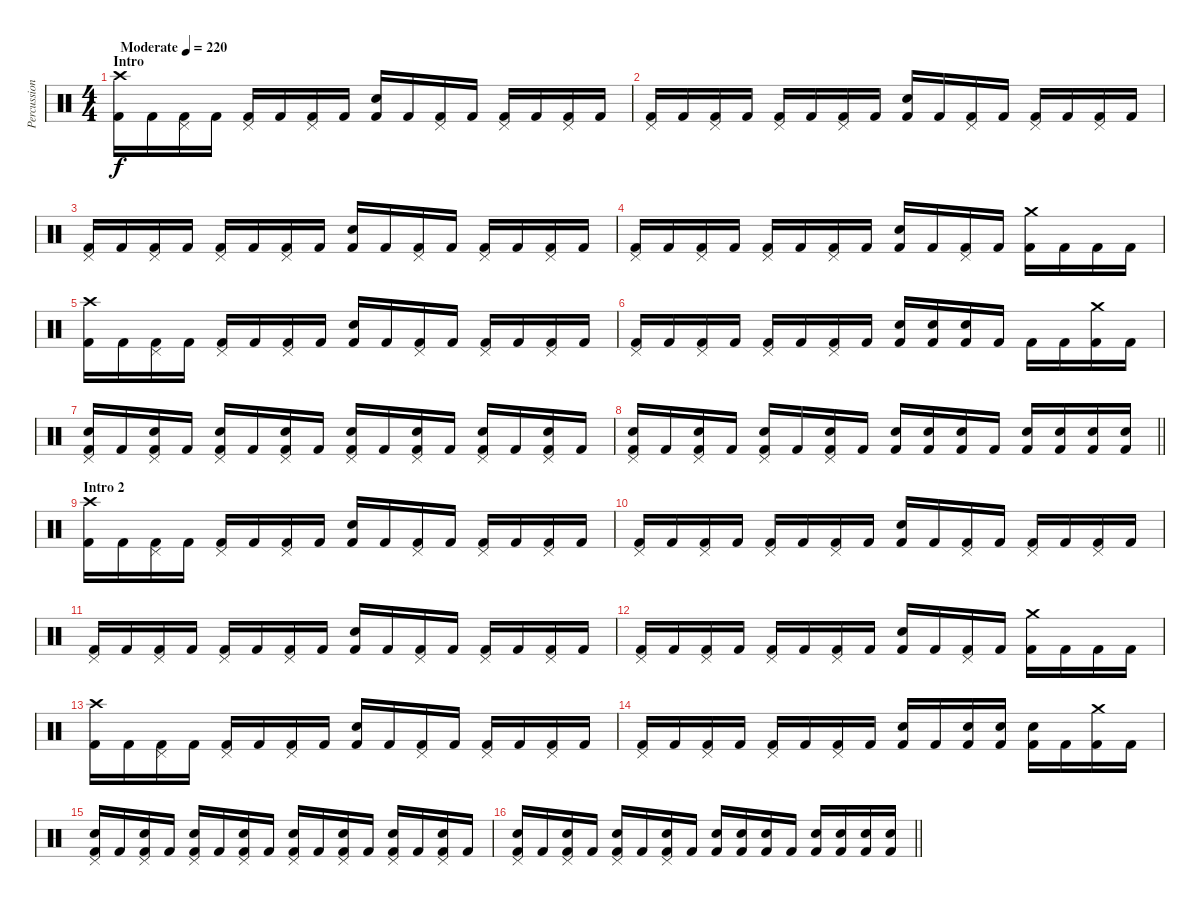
\track ("Percussion" "Percussion") {instrument percussion}
\staff {score}
\articulation defaults
\ts (4 4)
\section ("" "Intro")
\tempo (220 "Moderate")
\clef neutral
\ks c
("Crash high (hit)" "Kick (hit) 2").16{dy f} "Kick (hit) 2".16 ("Pedal Hi-Hat (hit)" "Kick (hit) 2").16 "Kick (hit) 2".16 ("Pedal Hi-Hat (hit)" "Kick (hit) 2").16 "Kick (hit) 2".16 ("Pedal Hi-Hat (hit)" "Kick (hit) 2").16 "Kick (hit) 2".16 ("Snare (hit) 2" "Kick (hit) 2").16 "Kick (hit) 2".16 ("Pedal Hi-Hat (hit)" "Kick (hit) 2").16 "Kick (hit) 2".16 ("Pedal Hi-Hat (hit)" "Kick (hit) 2").16 "Kick (hit) 2".16 ("Pedal Hi-Hat (hit)" "Kick (hit) 2").16 "Kick (hit) 2".16 |
("Pedal Hi-Hat (hit)" "Kick (hit) 2").16 "Kick (hit) 2".16 ("Pedal Hi-Hat (hit)" "Kick (hit) 2").16 "Kick (hit) 2".16 ("Pedal Hi-Hat (hit)" "Kick (hit) 2").16 "Kick (hit) 2".16 ("Pedal Hi-Hat (hit)" "Kick (hit) 2").16 "Kick (hit) 2".16 ("Snare (hit) 2" "Kick (hit) 2").16 "Kick (hit) 2".16 ("Pedal Hi-Hat (hit)" "Kick (hit) 2").16 "Kick (hit) 2".16 ("Pedal Hi-Hat (hit)" "Kick (hit) 2").16 "Kick (hit) 2".16 ("Pedal Hi-Hat (hit)" "Kick (hit) 2").16 "Kick (hit) 2".16 |
("Pedal Hi-Hat (hit)" "Kick (hit) 2").16 "Kick (hit) 2".16 ("Pedal Hi-Hat (hit)" "Kick (hit) 2").16 "Kick (hit) 2".16 ("Pedal Hi-Hat (hit)" "Kick (hit) 2").16 "Kick (hit) 2".16 ("Pedal Hi-Hat (hit)" "Kick (hit) 2").16 "Kick (hit) 2".16 ("Snare (hit) 2" "Kick (hit) 2").16 "Kick (hit) 2".16 ("Pedal Hi-Hat (hit)" "Kick (hit) 2").16 "Kick (hit) 2".16 ("Pedal Hi-Hat (hit)" "Kick (hit) 2").16 "Kick (hit) 2".16 ("Pedal Hi-Hat (hit)" "Kick (hit) 2").16 "Kick (hit) 2".16 |
("Pedal Hi-Hat (hit)" "Kick (hit) 2").16 "Kick (hit) 2".16 ("Pedal Hi-Hat (hit)" "Kick (hit) 2").16 "Kick (hit) 2".16 ("Pedal Hi-Hat (hit)" "Kick (hit) 2").16 "Kick (hit) 2".16 ("Pedal Hi-Hat (hit)" "Kick (hit) 2").16 "Kick (hit) 2".16 ("Snare (hit) 2" "Kick (hit) 2").16 "Kick (hit) 2".16 ("Pedal Hi-Hat (hit)" "Kick (hit) 2").16 "Kick (hit) 2".16 ("Crash medium (hit)" "Kick (hit) 2").16 "Kick (hit) 2".16 "Kick (hit) 2".16 "Kick (hit) 2".16 |
("Crash high (hit)" "Kick (hit) 2").16 "Kick (hit) 2".16 ("Pedal Hi-Hat (hit)" "Kick (hit) 2").16 "Kick (hit) 2".16 ("Pedal Hi-Hat (hit)" "Kick (hit) 2").16 "Kick (hit) 2".16 ("Pedal Hi-Hat (hit)" "Kick (hit) 2").16 "Kick (hit) 2".16 ("Snare (hit) 2" "Kick (hit) 2").16 "Kick (hit) 2".16 ("Pedal Hi-Hat (hit)" "Kick (hit) 2").16 "Kick (hit) 2".16 ("Pedal Hi-Hat (hit)" "Kick (hit) 2").16 "Kick (hit) 2".16 ("Pedal Hi-Hat (hit)" "Kick (hit) 2").16 "Kick (hit) 2".16 |
("Pedal Hi-Hat (hit)" "Kick (hit) 2").16 "Kick (hit) 2".16 ("Pedal Hi-Hat (hit)" "Kick (hit) 2").16 "Kick (hit) 2".16 ("Pedal Hi-Hat (hit)" "Kick (hit) 2").16 "Kick (hit) 2".16 ("Pedal Hi-Hat (hit)" "Kick (hit) 2").16 "Kick (hit) 2".16 ("Snare (hit) 2" "Kick (hit) 2").16 ("Snare (hit) 2" "Kick (hit) 2").16 ("Snare (hit) 2" "Kick (hit) 2").16 "Kick (hit) 2".16 "Kick (hit) 2".16 "Kick (hit) 2".16 ("Crash medium (hit)" "Kick (hit) 2").16 "Kick (hit) 2".16 |
("Pedal Hi-Hat (hit)" "Snare (hit) 2" "Kick (hit) 2").16 "Kick (hit) 2".16 ("Pedal Hi-Hat (hit)" "Snare (hit) 2" "Kick (hit) 2").16 "Kick (hit) 2".16 ("Pedal Hi-Hat (hit)" "Snare (hit) 2" "Kick (hit) 2").16 "Kick (hit) 2".16 ("Pedal Hi-Hat (hit)" "Snare (hit) 2" "Kick (hit) 2").16 "Kick (hit) 2".16 ("Pedal Hi-Hat (hit)" "Snare (hit) 2" "Kick (hit) 2").16 "Kick (hit) 2".16 ("Pedal Hi-Hat (hit)" "Snare (hit) 2" "Kick (hit) 2").16 "Kick (hit) 2".16 ("Pedal Hi-Hat (hit)" "Snare (hit) 2" "Kick (hit) 2").16 "Kick (hit) 2".16 ("Pedal Hi-Hat (hit)" "Snare (hit) 2" "Kick (hit) 2").16 "Kick (hit) 2".16 |
\barLineRight lightlight
("Pedal Hi-Hat (hit)" "Snare (hit) 2" "Kick (hit) 2").16 "Kick (hit) 2".16 ("Pedal Hi-Hat (hit)" "Snare (hit) 2" "Kick (hit) 2").16 "Kick (hit) 2".16 ("Pedal Hi-Hat (hit)" "Snare (hit) 2" "Kick (hit) 2").16 "Kick (hit) 2".16 ("Pedal Hi-Hat (hit)" "Snare (hit) 2" "Kick (hit) 2").16 "Kick (hit) 2".16 ("Snare (hit) 2" "Kick (hit) 2").16 ("Snare (hit) 2" "Kick (hit) 2").16 ("Snare (hit) 2" "Kick (hit) 2").16 "Kick (hit) 2".16 ("Snare (hit) 2" "Kick (hit) 2").16 ("Snare (hit) 2" "Kick (hit) 2").16 ("Snare (hit) 2" "Kick (hit) 2").16 ("Snare (hit) 2" "Kick (hit) 2").16 |
\section ("" "Intro 2")
("Crash high (hit)" "Kick (hit) 2").16 "Kick (hit) 2".16 ("Pedal Hi-Hat (hit)" "Kick (hit) 2").16 "Kick (hit) 2".16 ("Pedal Hi-Hat (hit)" "Kick (hit) 2").16 "Kick (hit) 2".16 ("Pedal Hi-Hat (hit)" "Kick (hit) 2").16 "Kick (hit) 2".16 ("Snare (hit) 2" "Kick (hit) 2").16 "Kick (hit) 2".16 ("Pedal Hi-Hat (hit)" "Kick (hit) 2").16 "Kick (hit) 2".16 ("Pedal Hi-Hat (hit)" "Kick (hit) 2").16 "Kick (hit) 2".16 ("Pedal Hi-Hat (hit)" "Kick (hit) 2").16 "Kick (hit) 2".16 |
("Pedal Hi-Hat (hit)" "Kick (hit) 2").16 "Kick (hit) 2".16 ("Pedal Hi-Hat (hit)" "Kick (hit) 2").16 "Kick (hit) 2".16 ("Pedal Hi-Hat (hit)" "Kick (hit) 2").16 "Kick (hit) 2".16 ("Pedal Hi-Hat (hit)" "Kick (hit) 2").16 "Kick (hit) 2".16 ("Snare (hit) 2" "Kick (hit) 2").16 "Kick (hit) 2".16 ("Pedal Hi-Hat (hit)" "Kick (hit) 2").16 "Kick (hit) 2".16 ("Pedal Hi-Hat (hit)" "Kick (hit) 2").16 "Kick (hit) 2".16 ("Pedal Hi-Hat (hit)" "Kick (hit) 2").16 "Kick (hit) 2".16 |
("Pedal Hi-Hat (hit)" "Kick (hit) 2").16 "Kick (hit) 2".16 ("Pedal Hi-Hat (hit)" "Kick (hit) 2").16 "Kick (hit) 2".16 ("Pedal Hi-Hat (hit)" "Kick (hit) 2").16 "Kick (hit) 2".16 ("Pedal Hi-Hat (hit)" "Kick (hit) 2").16 "Kick (hit) 2".16 ("Snare (hit) 2" "Kick (hit) 2").16 "Kick (hit) 2".16 ("Pedal Hi-Hat (hit)" "Kick (hit) 2").16 "Kick (hit) 2".16 ("Pedal Hi-Hat (hit)" "Kick (hit) 2").16 "Kick (hit) 2".16 ("Pedal Hi-Hat (hit)" "Kick (hit) 2").16 "Kick (hit) 2".16 |
("Pedal Hi-Hat (hit)" "Kick (hit) 2").16 "Kick (hit) 2".16 ("Pedal Hi-Hat (hit)" "Kick (hit) 2").16 "Kick (hit) 2".16 ("Pedal Hi-Hat (hit)" "Kick (hit) 2").16 "Kick (hit) 2".16 ("Pedal Hi-Hat (hit)" "Kick (hit) 2").16 "Kick (hit) 2".16 ("Snare (hit) 2" "Kick (hit) 2").16 "Kick (hit) 2".16 ("Pedal Hi-Hat (hit)" "Kick (hit) 2").16 "Kick (hit) 2".16 ("Crash medium (hit)" "Kick (hit) 2").16 "Kick (hit) 2".16 "Kick (hit) 2".16 "Kick (hit) 2".16 |
("Crash high (hit)" "Kick (hit) 2").16 "Kick (hit) 2".16 ("Pedal Hi-Hat (hit)" "Kick (hit) 2").16 "Kick (hit) 2".16 ("Pedal Hi-Hat (hit)" "Kick (hit) 2").16 "Kick (hit) 2".16 ("Pedal Hi-Hat (hit)" "Kick (hit) 2").16 "Kick (hit) 2".16 ("Snare (hit) 2" "Kick (hit) 2").16 "Kick (hit) 2".16 ("Pedal Hi-Hat (hit)" "Kick (hit) 2").16 "Kick (hit) 2".16 ("Pedal Hi-Hat (hit)" "Kick (hit) 2").16 "Kick (hit) 2".16 ("Pedal Hi-Hat (hit)" "Kick (hit) 2").16 "Kick (hit) 2".16 |
("Pedal Hi-Hat (hit)" "Kick (hit) 2").16 "Kick (hit) 2".16 ("Pedal Hi-Hat (hit)" "Kick (hit) 2").16 "Kick (hit) 2".16 ("Pedal Hi-Hat (hit)" "Kick (hit) 2").16 "Kick (hit) 2".16 ("Pedal Hi-Hat (hit)" "Kick (hit) 2").16 "Kick (hit) 2".16 ("Snare (hit) 2" "Kick (hit) 2").16 "Kick (hit) 2".16 ("Snare (hit) 2" "Kick (hit) 2").16 ("Snare (hit) 2" "Kick (hit) 2").16 ("Snare (hit) 2" "Kick (hit) 2").16 "Kick (hit) 2".16 ("Crash medium (hit)" "Kick (hit) 2").16 "Kick (hit) 2".16 |
("Pedal Hi-Hat (hit)" "Snare (hit) 2" "Kick (hit) 2").16 "Kick (hit) 2".16 ("Pedal Hi-Hat (hit)" "Snare (hit) 2" "Kick (hit) 2").16 "Kick (hit) 2".16 ("Pedal Hi-Hat (hit)" "Snare (hit) 2" "Kick (hit) 2").16 "Kick (hit) 2".16 ("Pedal Hi-Hat (hit)" "Snare (hit) 2" "Kick (hit) 2").16 "Kick (hit) 2".16 ("Pedal Hi-Hat (hit)" "Snare (hit) 2" "Kick (hit) 2").16 "Kick (hit) 2".16 ("Pedal Hi-Hat (hit)" "Snare (hit) 2" "Kick (hit) 2").16 "Kick (hit) 2".16 ("Pedal Hi-Hat (hit)" "Snare (hit) 2" "Kick (hit) 2").16 "Kick (hit) 2".16 ("Pedal Hi-Hat (hit)" "Snare (hit) 2" "Kick (hit) 2").16 "Kick (hit) 2".16 |
\barLineRight lightlight
("Pedal Hi-Hat (hit)" "Snare (hit) 2" "Kick (hit) 2").16 "Kick (hit) 2".16 ("Pedal Hi-Hat (hit)" "Snare (hit) 2" "Kick (hit) 2").16 "Kick (hit) 2".16 ("Pedal Hi-Hat (hit)" "Snare (hit) 2" "Kick (hit) 2").16 "Kick (hit) 2".16 ("Pedal Hi-Hat (hit)" "Snare (hit) 2" "Kick (hit) 2").16 "Kick (hit) 2".16 ("Snare (hit) 2" "Kick (hit) 2").16 ("Snare (hit) 2" "Kick (hit) 2").16 ("Snare (hit) 2" "Kick (hit) 2").16 "Kick (hit) 2".16 ("Snare (hit) 2" "Kick (hit) 2").16 ("Snare (hit) 2" "Kick (hit) 2").16 ("Snare (hit) 2" "Kick (hit) 2").16 ("Snare (hit) 2" "Kick (hit) 2").16
